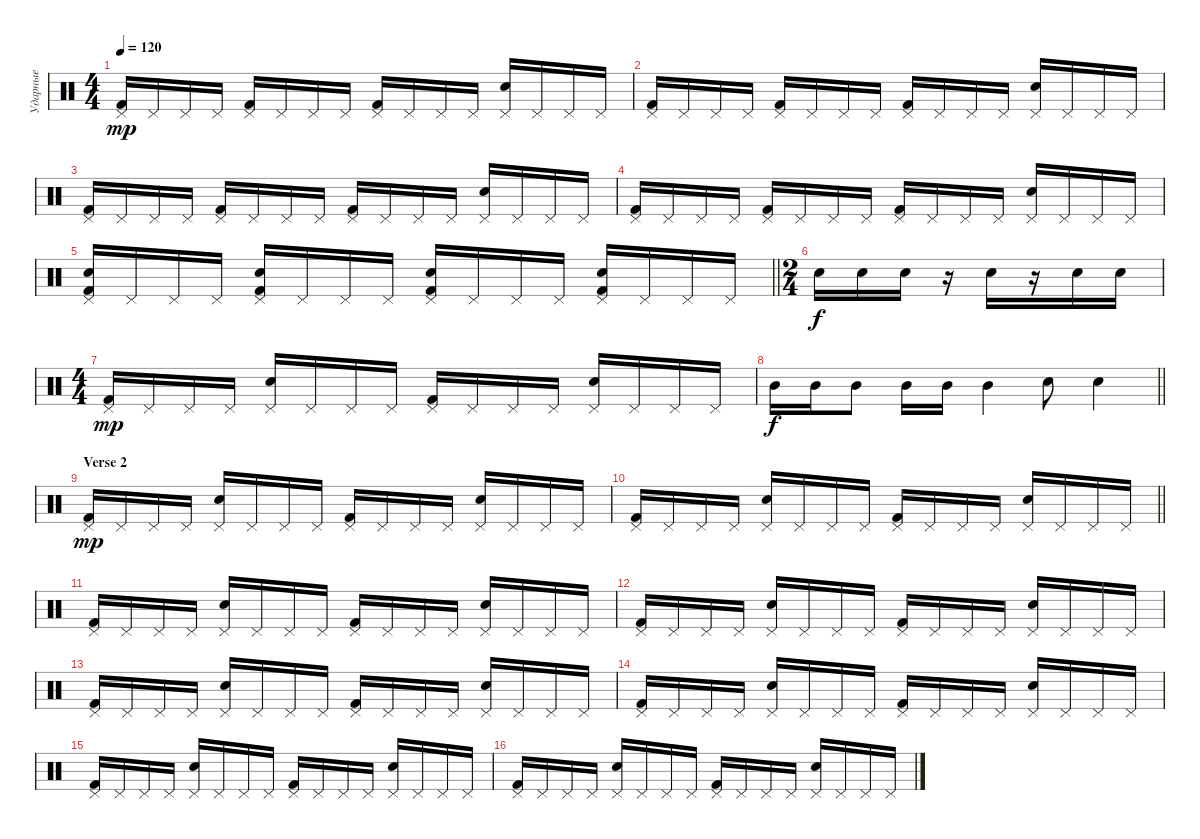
\track ("Ударные" "Ударные") {instrument percussion}
\staff {score}
\articulation defaults
\ts (4 4)
\tempo 120
\clef neutral
\ks c
("Pedal Hi-Hat (hit)" "Kick (hit) 2").16{dy mp} "Pedal Hi-Hat (hit)".16 "Pedal Hi-Hat (hit)".16 "Pedal Hi-Hat (hit)".16 ("Pedal Hi-Hat (hit)" "Kick (hit) 2").16 "Pedal Hi-Hat (hit)".16 "Pedal Hi-Hat (hit)".16 "Pedal Hi-Hat (hit)".16 ("Pedal Hi-Hat (hit)" "Kick (hit) 2").16 "Pedal Hi-Hat (hit)".16 "Pedal Hi-Hat (hit)".16 "Pedal Hi-Hat (hit)".16 ("Pedal Hi-Hat (hit)" "Snare (hit) 2").16 "Pedal Hi-Hat (hit)".16 "Pedal Hi-Hat (hit)".16 "Pedal Hi-Hat (hit)".16 |
("Pedal Hi-Hat (hit)" "Kick (hit) 2").16 "Pedal Hi-Hat (hit)".16 "Pedal Hi-Hat (hit)".16 "Pedal Hi-Hat (hit)".16 ("Pedal Hi-Hat (hit)" "Kick (hit) 2").16 "Pedal Hi-Hat (hit)".16 "Pedal Hi-Hat (hit)".16 "Pedal Hi-Hat (hit)".16 ("Pedal Hi-Hat (hit)" "Kick (hit) 2").16 "Pedal Hi-Hat (hit)".16 "Pedal Hi-Hat (hit)".16 "Pedal Hi-Hat (hit)".16 ("Pedal Hi-Hat (hit)" "Snare (hit) 2").16 "Pedal Hi-Hat (hit)".16 "Pedal Hi-Hat (hit)".16 "Pedal Hi-Hat (hit)".16 |
("Pedal Hi-Hat (hit)" "Kick (hit) 2").16 "Pedal Hi-Hat (hit)".16 "Pedal Hi-Hat (hit)".16 "Pedal Hi-Hat (hit)".16 ("Pedal Hi-Hat (hit)" "Kick (hit) 2").16 "Pedal Hi-Hat (hit)".16 "Pedal Hi-Hat (hit)".16 "Pedal Hi-Hat (hit)".16 ("Pedal Hi-Hat (hit)" "Kick (hit) 2").16 "Pedal Hi-Hat (hit)".16 "Pedal Hi-Hat (hit)".16 "Pedal Hi-Hat (hit)".16 ("Pedal Hi-Hat (hit)" "Snare (hit) 2").16 "Pedal Hi-Hat (hit)".16 "Pedal Hi-Hat (hit)".16 "Pedal Hi-Hat (hit)".16 |
("Pedal Hi-Hat (hit)" "Kick (hit) 2").16 "Pedal Hi-Hat (hit)".16 "Pedal Hi-Hat (hit)".16 "Pedal Hi-Hat (hit)".16 ("Pedal Hi-Hat (hit)" "Kick (hit) 2").16 "Pedal Hi-Hat (hit)".16 "Pedal Hi-Hat (hit)".16 "Pedal Hi-Hat (hit)".16 ("Pedal Hi-Hat (hit)" "Kick (hit) 2").16 "Pedal Hi-Hat (hit)".16 "Pedal Hi-Hat (hit)".16 "Pedal Hi-Hat (hit)".16 ("Pedal Hi-Hat (hit)" "Snare (hit) 2").16 "Pedal Hi-Hat (hit)".16 "Pedal Hi-Hat (hit)".16 "Pedal Hi-Hat (hit)".16 |
\barLineRight lightlight
("Pedal Hi-Hat (hit)" "Snare (hit) 2" "Kick (hit) 2").16 "Pedal Hi-Hat (hit)".16 "Pedal Hi-Hat (hit)".16 "Pedal Hi-Hat (hit)".16 ("Pedal Hi-Hat (hit)" "Snare (hit) 2" "Kick (hit) 2").16 "Pedal Hi-Hat (hit)".16 "Pedal Hi-Hat (hit)".16 "Pedal Hi-Hat (hit)".16 ("Pedal Hi-Hat (hit)" "Snare (hit) 2" "Kick (hit) 2").16 "Pedal Hi-Hat (hit)".16 "Pedal Hi-Hat (hit)".16 "Pedal Hi-Hat (hit)".16 ("Pedal Hi-Hat (hit)" "Snare (hit) 2" "Kick (hit) 2").16 "Pedal Hi-Hat (hit)".16 "Pedal Hi-Hat (hit)".16 "Pedal Hi-Hat (hit)".16 |
\ts (2 4)
"Snare (hit) 2".16{dy f} "Snare (hit) 2".16 "Snare (hit) 2".16 r.16 "Snare (hit) 2".16 r.16 "Snare (hit) 2".16 "Snare (hit) 2".16 |
\ts (4 4)
("Pedal Hi-Hat (hit)" "Kick (hit) 2").16{dy mp} "Pedal Hi-Hat (hit)".16 "Pedal Hi-Hat (hit)".16 "Pedal Hi-Hat (hit)".16 ("Pedal Hi-Hat (hit)" "Snare (hit) 2").16 "Pedal Hi-Hat (hit)".16 "Pedal Hi-Hat (hit)".16 "Pedal Hi-Hat (hit)".16 ("Pedal Hi-Hat (hit)" "Kick (hit) 2").16 "Pedal Hi-Hat (hit)".16 "Pedal Hi-Hat (hit)".16 "Pedal Hi-Hat (hit)".16 ("Pedal Hi-Hat (hit)" "Snare (hit) 2").16 "Pedal Hi-Hat (hit)".16 "Pedal Hi-Hat (hit)".16 "Pedal Hi-Hat (hit)".16 |
\barLineRight lightlight "Mid Tom (hit)".16{dy f} "Mid Tom (hit)".16 "Mid Tom (hit)".8 "Mid Tom (hit)".16 "Mid Tom (hit)".16 "Mid Tom (hit)".4 "Snare (hit) 2".8 "Snare (hit) 2".4
|
\section ("" "Verse 2")
("Pedal Hi-Hat (hit)" "Kick (hit) 2").16{dy mp} "Pedal Hi-Hat (hit)".16 "Pedal Hi-Hat (hit)".16 "Pedal Hi-Hat (hit)".16 ("Pedal Hi-Hat (hit)" "Snare (hit) 2").16 "Pedal Hi-Hat (hit)".16 "Pedal Hi-Hat (hit)".16 "Pedal Hi-Hat (hit)".16 ("Pedal Hi-Hat (hit)" "Kick (hit) 2").16 "Pedal Hi-Hat (hit)".16 "Pedal Hi-Hat (hit)".16 "Pedal Hi-Hat (hit)".16 ("Pedal Hi-Hat (hit)" "Snare (hit) 2").16 "Pedal Hi-Hat (hit)".16 "Pedal Hi-Hat (hit)".16 "Pedal Hi-Hat (hit)".16 |
\barLineRight lightlight
("Pedal Hi-Hat (hit)" "Kick (hit) 2").16 "Pedal Hi-Hat (hit)".16 "Pedal Hi-Hat (hit)".16 "Pedal Hi-Hat (hit)".16 ("Pedal Hi-Hat (hit)" "Snare (hit) 2").16 "Pedal Hi-Hat (hit)".16 "Pedal Hi-Hat (hit)".16 "Pedal Hi-Hat (hit)".16 ("Pedal Hi-Hat (hit)" "Kick (hit) 2").16 "Pedal Hi-Hat (hit)".16 "Pedal Hi-Hat (hit)".16 "Pedal Hi-Hat (hit)".16 ("Pedal Hi-Hat (hit)" "Snare (hit) 2").16 "Pedal Hi-Hat (hit)".16 "Pedal Hi-Hat (hit)".16 "Pedal Hi-Hat (hit)".16 |
("Pedal Hi-Hat (hit)" "Kick (hit) 2").16 "Pedal Hi-Hat (hit)".16 "Pedal Hi-Hat (hit)".16 "Pedal Hi-Hat (hit)".16 ("Pedal Hi-Hat (hit)" "Snare (hit) 2").16 "Pedal Hi-Hat (hit)".16 "Pedal Hi-Hat (hit)".16 "Pedal Hi-Hat (hit)".16 ("Pedal Hi-Hat (hit)" "Kick (hit) 2").16 "Pedal Hi-Hat (hit)".16 "Pedal Hi-Hat (hit)".16 "Pedal Hi-Hat (hit)".16 ("Pedal Hi-Hat (hit)" "Snare (hit) 2").16 "Pedal Hi-Hat (hit)".16 "Pedal Hi-Hat (hit)".16 "Pedal Hi-Hat (hit)".16 |
("Pedal Hi-Hat (hit)" "Kick (hit) 2").16 "Pedal Hi-Hat (hit)".16 "Pedal Hi-Hat (hit)".16 "Pedal Hi-Hat (hit)".16 ("Pedal Hi-Hat (hit)" "Snare (hit) 2").16 "Pedal Hi-Hat (hit)".16 "Pedal Hi-Hat (hit)".16 "Pedal Hi-Hat (hit)".16 ("Pedal Hi-Hat (hit)" "Kick (hit) 2").16 "Pedal Hi-Hat (hit)".16 "Pedal Hi-Hat (hit)".16 "Pedal Hi-Hat (hit)".16 ("Pedal Hi-Hat (hit)" "Snare (hit) 2").16 "Pedal Hi-Hat (hit)".16 "Pedal Hi-Hat (hit)".16 "Pedal Hi-Hat (hit)".16 |
("Pedal Hi-Hat (hit)" "Kick (hit) 2").16 "Pedal Hi-Hat (hit)".16 "Pedal Hi-Hat (hit)".16 "Pedal Hi-Hat (hit)".16 ("Pedal Hi-Hat (hit)" "Snare (hit) 2").16 "Pedal Hi-Hat (hit)".16 "Pedal Hi-Hat (hit)".16 "Pedal Hi-Hat (hit)".16 ("Pedal Hi-Hat (hit)" "Kick (hit) 2").16 "Pedal Hi-Hat (hit)".16 "Pedal Hi-Hat (hit)".16 "Pedal Hi-Hat (hit)".16 ("Pedal Hi-Hat (hit)" "Snare (hit) 2").16 "Pedal Hi-Hat (hit)".16 "Pedal Hi-Hat (hit)".16 "Pedal Hi-Hat (hit)".16 |
("Pedal Hi-Hat (hit)" "Kick (hit) 2").16 "Pedal Hi-Hat (hit)".16 "Pedal Hi-Hat (hit)".16 "Pedal Hi-Hat (hit)".16 ("Pedal Hi-Hat (hit)" "Snare (hit) 2").16 "Pedal Hi-Hat (hit)".16 "Pedal Hi-Hat (hit)".16 "Pedal Hi-Hat (hit)".16 ("Pedal Hi-Hat (hit)" "Kick (hit) 2").16 "Pedal Hi-Hat (hit)".16 "Pedal Hi-Hat (hit)".16 "Pedal Hi-Hat (hit)".16 ("Pedal Hi-Hat (hit)" "Snare (hit) 2").16 "Pedal Hi-Hat (hit)".16 "Pedal Hi-Hat (hit)".16 "Pedal Hi-Hat (hit)".16 |
("Pedal Hi-Hat (hit)" "Kick (hit) 2").16 "Pedal Hi-Hat (hit)".16 "Pedal Hi-Hat (hit)".16 "Pedal Hi-Hat (hit)".16 ("Pedal Hi-Hat (hit)" "Snare (hit) 2").16 "Pedal Hi-Hat (hit)".16 "Pedal Hi-Hat (hit)".16 "Pedal Hi-Hat (hit)".16 ("Pedal Hi-Hat (hit)" "Kick (hit) 2").16 "Pedal Hi-Hat (hit)".16 "Pedal Hi-Hat (hit)".16 "Pedal Hi-Hat (hit)".16 ("Pedal Hi-Hat (hit)" "Snare (hit) 2").16 "Pedal Hi-Hat (hit)".16 "Pedal Hi-Hat (hit)".16 "Pedal Hi-Hat (hit)".16 |
("Pedal Hi-Hat (hit)" "Kick (hit) 2").16 "Pedal Hi-Hat (hit)".16 "Pedal Hi-Hat (hit)".16 "Pedal Hi-Hat (hit)".16 ("Pedal Hi-Hat (hit)" "Snare (hit) 2").16 "Pedal Hi-Hat (hit)".16 "Pedal Hi-Hat (hit)".16 "Pedal Hi-Hat (hit)".16 ("Pedal Hi-Hat (hit)" "Kick (hit) 2").16 "Pedal Hi-Hat (hit)".16 "Pedal Hi-Hat (hit)".16 "Pedal Hi-Hat (hit)".16 ("Pedal Hi-Hat (hit)" "Snare (hit) 2").16 "Pedal Hi-Hat (hit)".16 "Pedal Hi-Hat (hit)".16 "Pedal Hi-Hat (hit)".16
